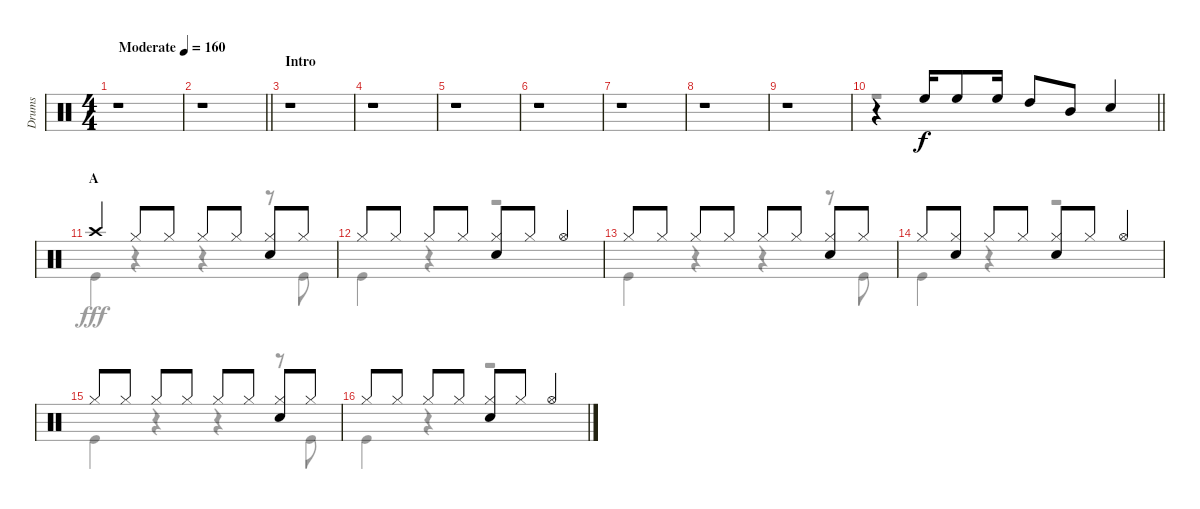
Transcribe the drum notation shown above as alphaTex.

\track ("Drums" "Drums") {instrument percussion}
\staff {score}
\articulation defaults
\voice
\ts (4 4)
\tempo (160 "Moderate")
\clef neutral
\ks c
r.1{dy f} |
\barLineRight lightlight
r.1 |
\section ("" "Intro")
r.1 |
r.1 |
r.1 |
r.1 |
r.1 |
r.1 |
r.1 |
\barLineRight lightlight
r.4 "High Floor Tom (hit)".16 "High Floor Tom (hit)".8 "High Floor Tom (hit)".16 "High Tom (hit)".8 "Mid Tom (hit)".8 "Snare (hit) 2".4 |
\section ("" "A")
"Crash high (hit)".4 "Hi-Hat (closed)".8 "Hi-Hat (closed)".8 "Hi-Hat (closed)".8 "Hi-Hat (closed)".8 ("Hi-Hat (closed)" "Snare (hit) 2").8 "Hi-Hat (closed)".8 |
"Hi-Hat (closed)".8 "Hi-Hat (closed)".8 "Hi-Hat (closed)".8 "Hi-Hat (closed)".8 ("Hi-Hat (closed)" "Snare (hit) 2").8 "Hi-Hat (closed)".8 "Hi-Hat (open)".4 |
"Hi-Hat (closed)".8 "Hi-Hat (closed)".8 "Hi-Hat (closed)".8 "Hi-Hat (closed)".8 "Hi-Hat (closed)".8 "Hi-Hat (closed)".8 ("Hi-Hat (closed)" "Snare (hit) 2").8 "Hi-Hat (closed)".8 |
"Hi-Hat (closed)".8 ("Hi-Hat (closed)" "Snare (hit) 2").8 "Hi-Hat (closed)".8 "Hi-Hat (closed)".8 ("Hi-Hat (closed)" "Snare (hit) 2").8 "Hi-Hat (closed)".8 "Hi-Hat (open)".4 |
"Hi-Hat (closed)".8 "Hi-Hat (closed)".8 "Hi-Hat (closed)".8 "Hi-Hat (closed)".8 "Hi-Hat (closed)".8 "Hi-Hat (closed)".8 ("Hi-Hat (closed)" "Snare (hit) 2").8 "Hi-Hat (closed)".8 |
"Hi-Hat (closed)".8 "Hi-Hat (closed)".8 "Hi-Hat (closed)".8 "Hi-Hat (closed)".8 ("Hi-Hat (closed)" "Snare (hit) 2").8 "Hi-Hat (closed)".8 "Hi-Hat (open)".4
\voice
\clef neutral
\ottava regular
\simile none
\ks c
r.1{dy fff} |
\barLineRight lightlight
r.1 |
r.1 |
r.1 |
r.1 |
r.1 |
r.1 |
r.1 |
r.1 |
\barLineRight lightlight
r.1 |
"Kick (hit)".4 r.4 r.4 r.8 "Kick (hit)".8 |
"Kick (hit)".4 r.4 r.2 |
"Kick (hit)".4 r.4 r.4 r.8 "Kick (hit)".8 |
"Kick (hit)".4 r.4 r.2 |
"Kick (hit)".4 r.4 r.4 r.8 "Kick (hit)".8 |
"Kick (hit)".4 r.4 r.2
